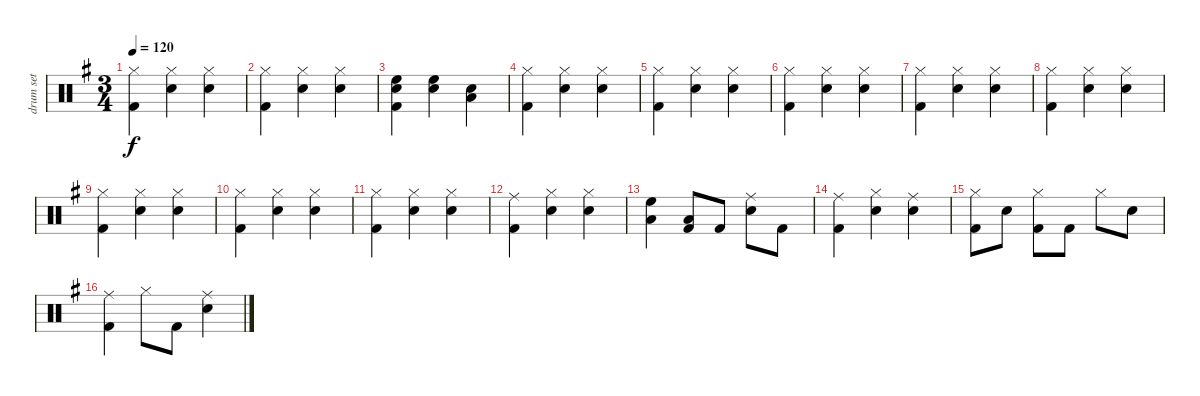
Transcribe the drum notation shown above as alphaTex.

\track ("drum set" "drum set") {instrument percussion}
\staff {score}
\articulation defaults
\ts (3 4)
\tempo 120
\clef neutral
\ks g
("Hi-Hat (closed)" "Kick (hit) 2").4{dy f} ("Hi-Hat (closed)" "Snare (hit) 2").4 ("Hi-Hat (closed)" "Snare (hit) 2").4 |
("Hi-Hat (closed)" "Kick (hit) 2").4 ("Hi-Hat (closed)" "Snare (hit) 2").4 ("Hi-Hat (closed)" "Snare (hit) 2").4 |
("High Floor Tom (hit)" "Snare (hit) 2" "Kick (hit) 2").4 ("High Floor Tom (hit)" "Snare (hit) 2").4 ("Low Tom (hit)" "Snare (hit) 2").4 |
("Hi-Hat (closed)" "Kick (hit) 2").4 ("Hi-Hat (closed)" "Snare (hit) 2").4 ("Hi-Hat (closed)" "Snare (hit) 2").4 |
("Hi-Hat (closed)" "Kick (hit) 2").4 ("Hi-Hat (closed)" "Snare (hit) 2").4 ("Hi-Hat (closed)" "Snare (hit) 2").4 |
("Hi-Hat (closed)" "Kick (hit) 2").4 ("Hi-Hat (closed)" "Snare (hit) 2").4 ("Hi-Hat (closed)" "Snare (hit) 2").4 |
("Hi-Hat (closed)" "Kick (hit) 2").4 ("Hi-Hat (closed)" "Snare (hit) 2").4 ("Hi-Hat (closed)" "Snare (hit) 2").4 |
("Hi-Hat (closed)" "Kick (hit) 2").4 ("Hi-Hat (closed)" "Snare (hit) 2").4 ("Hi-Hat (closed)" "Snare (hit) 2").4 |
("Hi-Hat (closed)" "Kick (hit) 2").4 ("Hi-Hat (closed)" "Snare (hit) 2").4 ("Hi-Hat (closed)" "Snare (hit) 2").4 |
("Hi-Hat (closed)" "Kick (hit) 2").4 ("Hi-Hat (closed)" "Snare (hit) 2").4 ("Hi-Hat (closed)" "Snare (hit) 2").4 |
("Hi-Hat (closed)" "Kick (hit) 2").4 ("Hi-Hat (closed)" "Snare (hit) 2").4 ("Hi-Hat (closed)" "Snare (hit) 2").4 |
("Ride (middle)" "Kick (hit) 2").4 ("Hi-Hat (closed)" "Snare (hit) 2").4 ("Hi-Hat (closed)" "Snare (hit) 2").4 |
("High Floor Tom (hit)" "Low Tom (hit)").4 ("Low Tom (hit)" "Kick (hit) 2").8 "Kick (hit) 2".8 ("Ride (middle)" "Snare (hit) 2").8 "Kick (hit) 2".8 |
("Ride (middle)" "Kick (hit) 2").4 ("Hi-Hat (closed)" "Snare (hit) 2").4 ("Ride (middle)" "Snare (hit) 2").4 |
("Hi-Hat (closed)" "Kick (hit) 2").8 "Snare (hit) 2".8 ("Hi-Hat (closed)" "Kick (hit) 2").8 "Kick (hit) 2".8 "Hi-Hat (closed)".8 "Snare (hit) 2".8 |
("Ride (middle)" "Kick (hit) 2").4 "Hi-Hat (closed)".8 "Kick (hit) 2".8 ("Ride (middle)" "Snare (hit) 2").4
